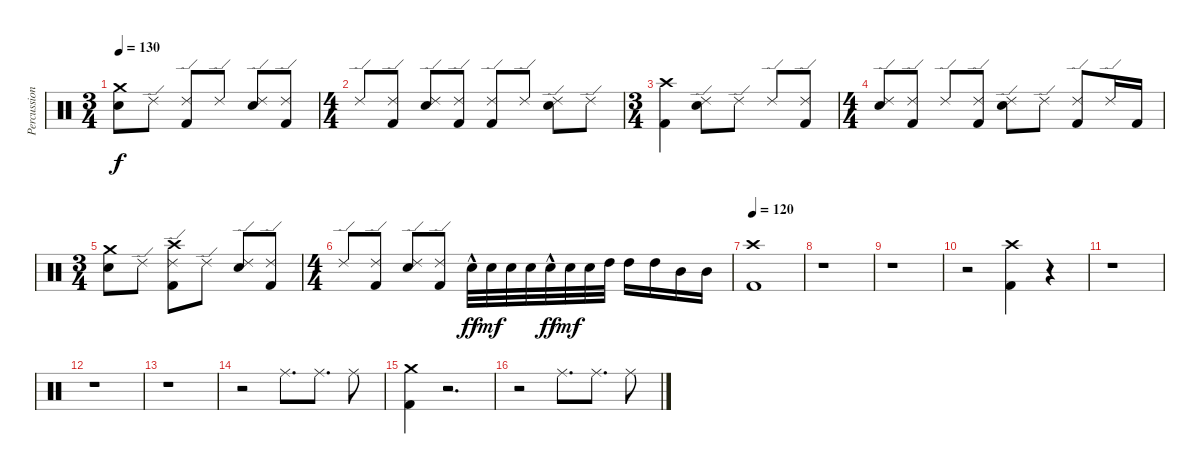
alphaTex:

\track ("Percussion" "Percussion") {instrument percussion}
\staff {score}
\articulation defaults
\ts (3 4)
\tempo 130
\clef neutral
\ks c
("Crash medium (hit)" "Electric Snare (hit)").8{dy f} "Ride (edge) 2".8 ("Ride (edge) 2" "Kick (hit) 2").8 "Ride (edge) 2".8 ("Ride (edge) 2" "Electric Snare (hit)").8 ("Ride (edge) 2" "Kick (hit) 2").8 |
\ts (4 4)
"Ride (edge) 2".8 ("Ride (edge) 2" "Kick (hit) 2").8 ("Ride (edge) 2" "Electric Snare (hit)").8 ("Ride (edge) 2" "Kick (hit) 2").8 ("Ride (edge) 2" "Kick (hit) 2").8 "Ride (edge) 2".8 ("Ride (edge) 2" "Electric Snare (hit)").8 "Ride (edge) 2".8 |
\ts (3 4)
("Crash high (hit)" "Kick (hit) 2").4 ("Ride (edge) 2" "Electric Snare (hit)").8 "Ride (edge) 2".8 "Ride (edge) 2".8 ("Ride (edge) 2" "Kick (hit) 2").8 |
\ts (4 4)
("Ride (edge) 2" "Electric Snare (hit)").8 ("Ride (edge) 2" "Kick (hit) 2").8 "Ride (edge) 2".8 ("Ride (edge) 2" "Kick (hit) 2").8 ("Ride (edge) 2" "Electric Snare (hit)").8 "Ride (edge) 2".8 ("Ride (edge) 2" "Kick (hit) 2").8 "Ride (edge) 2".16 "Kick (hit) 2".16 |
\ts (3 4)
("Crash medium (hit)" "Electric Snare (hit)").8 "Ride (edge) 2".8 ("Crash high (hit)" "Ride (edge) 2" "Kick (hit) 2").8 "Ride (edge) 2".8 ("Ride (edge) 2" "Electric Snare (hit)").8 ("Ride (edge) 2" "Kick (hit) 2").8 |
\ts (4 4)
"Ride (edge) 2".8 ("Ride (edge) 2" "Kick (hit) 2").8 ("Ride (edge) 2" "Electric Snare (hit)").8 ("Ride (edge) 2" "Kick (hit) 2").8 "Electric Snare (hit)"{hac}.32{dy ff} "Electric Snare (hit)".32{dy mf} "Electric Snare (hit)".32 "Electric Snare (hit)".32 "Electric Snare (hit)"{hac}.32{dy ff} "Electric Snare (hit)".32{dy mf} "Electric Snare (hit)".32 "High Tom (hit)".32 "High Tom (hit)".16 "High Tom (hit)".16 "Mid Tom (hit)".16 "Mid Tom (hit)".16 |
\tempo 120
("Crash high (hit)" "Kick (hit) 2").1 |
r.1 |
r.1 |
r.2 ("Crash high (hit)" "Kick (hit) 2").4 r.4 |
r.1 |
r.1 |
r.1 |
r.2 "Ride (middle)".8{d} "Ride (middle)".8{d} "Ride (middle)".8 |
("Crash medium (hit)" "Kick (hit) 2").4 r.2{d} |
r.2 "Ride (middle)".8{d} "Ride (middle)".8{d} "Ride (middle)".8
